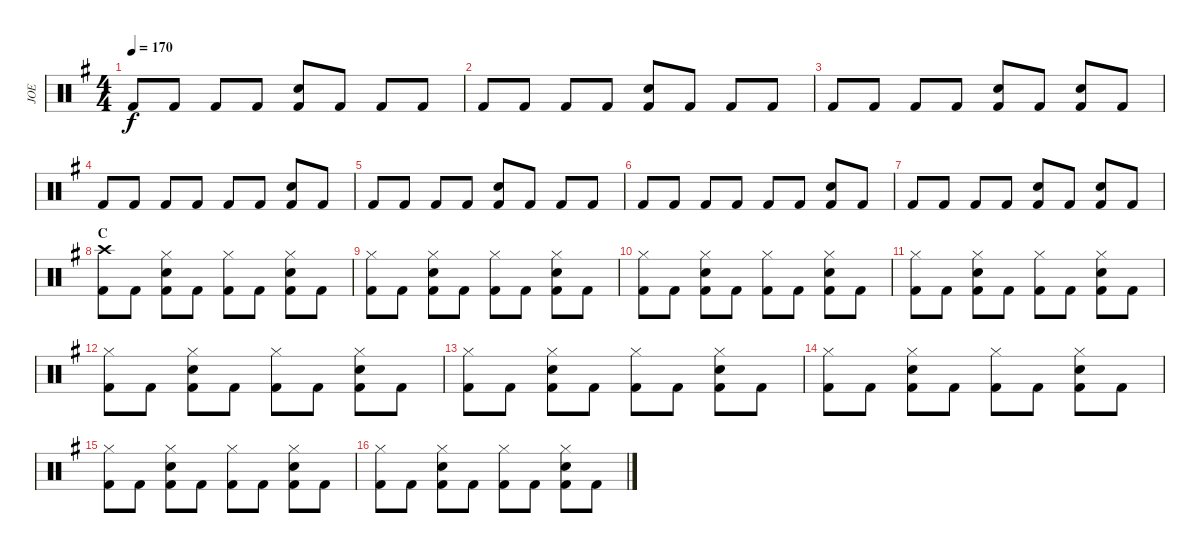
\track ("JOE" "JOE") {instrument percussion}
\staff {score}
\articulation defaults
\ts (4 4)
\tempo 170
\clef neutral
\ks eminor "Kick (hit) 2".8{dy f} "Kick (hit) 2".8 "Kick (hit) 2".8 "Kick (hit) 2".8
("Snare (hit) 2" "Kick (hit) 2").8 "Kick (hit) 2".8 "Kick (hit) 2".8 "Kick (hit) 2".8 |
"Kick (hit) 2".8 "Kick (hit) 2".8 "Kick (hit) 2".8 "Kick (hit) 2".8 ("Snare (hit) 2" "Kick (hit) 2").8 "Kick (hit) 2".8 "Kick (hit) 2".8 "Kick (hit) 2".8 |
"Kick (hit) 2".8 "Kick (hit) 2".8 "Kick (hit) 2".8 "Kick (hit) 2".8 ("Snare (hit) 2" "Kick (hit) 2").8 "Kick (hit) 2".8 ("Snare (hit) 2" "Kick (hit) 2").8 "Kick (hit) 2".8 |
"Kick (hit) 2".8 "Kick (hit) 2".8 "Kick (hit) 2".8 "Kick (hit) 2".8 "Kick (hit) 2".8 "Kick (hit) 2".8 ("Snare (hit) 2" "Kick (hit) 2").8 "Kick (hit) 2".8 |
"Kick (hit) 2".8 "Kick (hit) 2".8 "Kick (hit) 2".8 "Kick (hit) 2".8 ("Snare (hit) 2" "Kick (hit) 2").8 "Kick (hit) 2".8 "Kick (hit) 2".8 "Kick (hit) 2".8 |
"Kick (hit) 2".8 "Kick (hit) 2".8 "Kick (hit) 2".8 "Kick (hit) 2".8 "Kick (hit) 2".8 "Kick (hit) 2".8 ("Snare (hit) 2" "Kick (hit) 2").8 "Kick (hit) 2".8 |
"Kick (hit) 2".8 "Kick (hit) 2".8 "Kick (hit) 2".8 "Kick (hit) 2".8 ("Snare (hit) 2" "Kick (hit) 2").8 "Kick (hit) 2".8 ("Snare (hit) 2" "Kick (hit) 2").8 "Kick (hit) 2".8 |
\section ("" "C")
("Crash high (hit)" "Kick (hit) 2").8 "Kick (hit) 2".8 ("Hi-Hat (closed)" "Snare (hit) 2" "Kick (hit) 2").8 "Kick (hit) 2".8 ("Hi-Hat (closed)" "Kick (hit) 2").8 "Kick (hit) 2".8 ("Hi-Hat (closed)" "Snare (hit) 2" "Kick (hit) 2").8 "Kick (hit) 2".8 |
("Hi-Hat (closed)" "Kick (hit) 2").8 "Kick (hit) 2".8 ("Hi-Hat (closed)" "Snare (hit) 2" "Kick (hit) 2").8 "Kick (hit) 2".8 ("Hi-Hat (closed)" "Kick (hit) 2").8 "Kick (hit) 2".8 ("Hi-Hat (closed)" "Snare (hit) 2" "Kick (hit) 2").8 "Kick (hit) 2".8 |
("Hi-Hat (closed)" "Kick (hit) 2").8 "Kick (hit) 2".8 ("Hi-Hat (closed)" "Snare (hit) 2" "Kick (hit) 2").8 "Kick (hit) 2".8 ("Hi-Hat (closed)" "Kick (hit) 2").8 "Kick (hit) 2".8 ("Hi-Hat (closed)" "Snare (hit) 2" "Kick (hit) 2").8 "Kick (hit) 2".8 |
("Hi-Hat (closed)" "Kick (hit) 2").8 "Kick (hit) 2".8 ("Hi-Hat (closed)" "Snare (hit) 2" "Kick (hit) 2").8 "Kick (hit) 2".8 ("Hi-Hat (closed)" "Kick (hit) 2").8 "Kick (hit) 2".8 ("Hi-Hat (closed)" "Snare (hit) 2" "Kick (hit) 2").8 "Kick (hit) 2".8 |
("Hi-Hat (closed)" "Kick (hit) 2").8 "Kick (hit) 2".8 ("Hi-Hat (closed)" "Snare (hit) 2" "Kick (hit) 2").8 "Kick (hit) 2".8 ("Hi-Hat (closed)" "Kick (hit) 2").8 "Kick (hit) 2".8 ("Hi-Hat (closed)" "Snare (hit) 2" "Kick (hit) 2").8 "Kick (hit) 2".8 |
("Hi-Hat (closed)" "Kick (hit) 2").8 "Kick (hit) 2".8 ("Hi-Hat (closed)" "Snare (hit) 2" "Kick (hit) 2").8 "Kick (hit) 2".8 ("Hi-Hat (closed)" "Kick (hit) 2").8 "Kick (hit) 2".8 ("Hi-Hat (closed)" "Snare (hit) 2" "Kick (hit) 2").8 "Kick (hit) 2".8 |
("Hi-Hat (closed)" "Kick (hit) 2").8 "Kick (hit) 2".8 ("Hi-Hat (closed)" "Snare (hit) 2" "Kick (hit) 2").8 "Kick (hit) 2".8 ("Hi-Hat (closed)" "Kick (hit) 2").8 "Kick (hit) 2".8 ("Hi-Hat (closed)" "Snare (hit) 2" "Kick (hit) 2").8 "Kick (hit) 2".8 |
("Hi-Hat (closed)" "Kick (hit) 2").8 "Kick (hit) 2".8 ("Hi-Hat (closed)" "Snare (hit) 2" "Kick (hit) 2").8 "Kick (hit) 2".8 ("Hi-Hat (closed)" "Kick (hit) 2").8 "Kick (hit) 2".8 ("Hi-Hat (closed)" "Snare (hit) 2" "Kick (hit) 2").8 "Kick (hit) 2".8 |
("Hi-Hat (closed)" "Kick (hit) 2").8 "Kick (hit) 2".8 ("Hi-Hat (closed)" "Snare (hit) 2" "Kick (hit) 2").8 "Kick (hit) 2".8 ("Hi-Hat (closed)" "Kick (hit) 2").8 "Kick (hit) 2".8 ("Hi-Hat (closed)" "Snare (hit) 2" "Kick (hit) 2").8 "Kick (hit) 2".8
